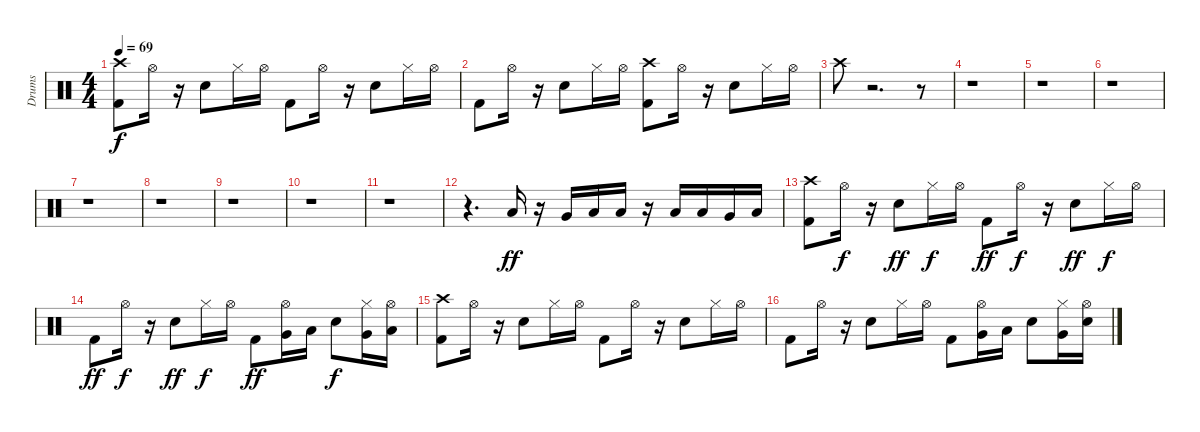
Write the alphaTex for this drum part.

\track ("Drums" "Drums") {instrument percussion}
\staff {score}
\articulation defaults
\ts (4 4)
\tempo 69
\clef neutral
\ks c
("Crash high (hit)" "Kick (hit) 2").8{dy f} "Hi-Hat (open)".16 r.16 "Snare (hit) 2".8 "Hi-Hat (closed)".16 "Hi-Hat (open)".16 "Kick (hit) 2".8 "Hi-Hat (open)".16 r.16 "Snare (hit) 2".8 "Hi-Hat (closed)".16 "Hi-Hat (open)".16 |
"Kick (hit) 2".8 "Hi-Hat (open)".16 r.16 "Snare (hit) 2".8 "Hi-Hat (closed)".16 "Hi-Hat (open)".16 ("Crash high (hit)" "Kick (hit) 2").8 "Hi-Hat (open)".16 r.16 "Snare (hit) 2".8 "Hi-Hat (closed)".16 "Hi-Hat (open)".16 |
"Crash high (hit)".8 r.2{d} r.8 |
r.1 |
r.1 |
r.1 |
r.1 |
r.1 |
r.1 |
r.1 |
r.1 |
r.4{d} "Low Tom (hit)".16{dy ff} r.16 "Very Low Tom (hit)".16 "Low Floor Tom (hit)".16 "Low Tom (hit)".16 r.16 "Low Tom (hit)".16 "Low Tom (hit)".16 "Very Low Tom (hit)".16 "Low Floor Tom (hit)".16 |
("Crash high (hit)" "Kick (hit) 2").8 "Hi-Hat (open)".16{dy f} r.16 "Snare (hit) 2".8{dy ff} "Hi-Hat (closed)".16{dy f} "Hi-Hat (open)".16 "Kick (hit) 2".8{dy ff} "Hi-Hat (open)".16{dy f} r.16 "Snare (hit) 2".8{dy ff} "Hi-Hat (closed)".16{dy f} "Hi-Hat (open)".16 |
"Kick (hit) 2".8{dy ff} "Hi-Hat (open)".16{dy f} r.16 "Snare (hit) 2".8{dy ff} "Hi-Hat (closed)".16{dy f} "Hi-Hat (open)".16 "Kick (hit) 2".8{dy ff} ("Very Low Tom (hit)" "Hi-Hat (open)").16 "Low Floor Tom (hit)".16 "Snare (hit) 2".8{dy f} ("Very Low Tom (hit)" "Hi-Hat (closed)").16 ("Low Tom (hit)" "Hi-Hat (open)").16 |
("Crash high (hit)" "Kick (hit) 2").8 "Hi-Hat (open)".16 r.16 "Snare (hit) 2".8 "Hi-Hat (closed)".16 "Hi-Hat (open)".16 "Kick (hit) 2".8 "Hi-Hat (open)".16 r.16 "Snare (hit) 2".8 "Hi-Hat (closed)".16 "Hi-Hat (open)".16 |
"Kick (hit) 2".8 "Hi-Hat (open)".16 r.16 "Snare (hit) 2".8 "Hi-Hat (closed)".16 "Hi-Hat (open)".16 "Kick (hit) 2".8 ("Very Low Tom (hit)" "Hi-Hat (open)").16 "Low Floor Tom (hit)".16 "Snare (hit) 2".8 ("Very Low Tom (hit)" "Hi-Hat (closed)").16 ("Snare (hit) 2" "Hi-Hat (open)").16
